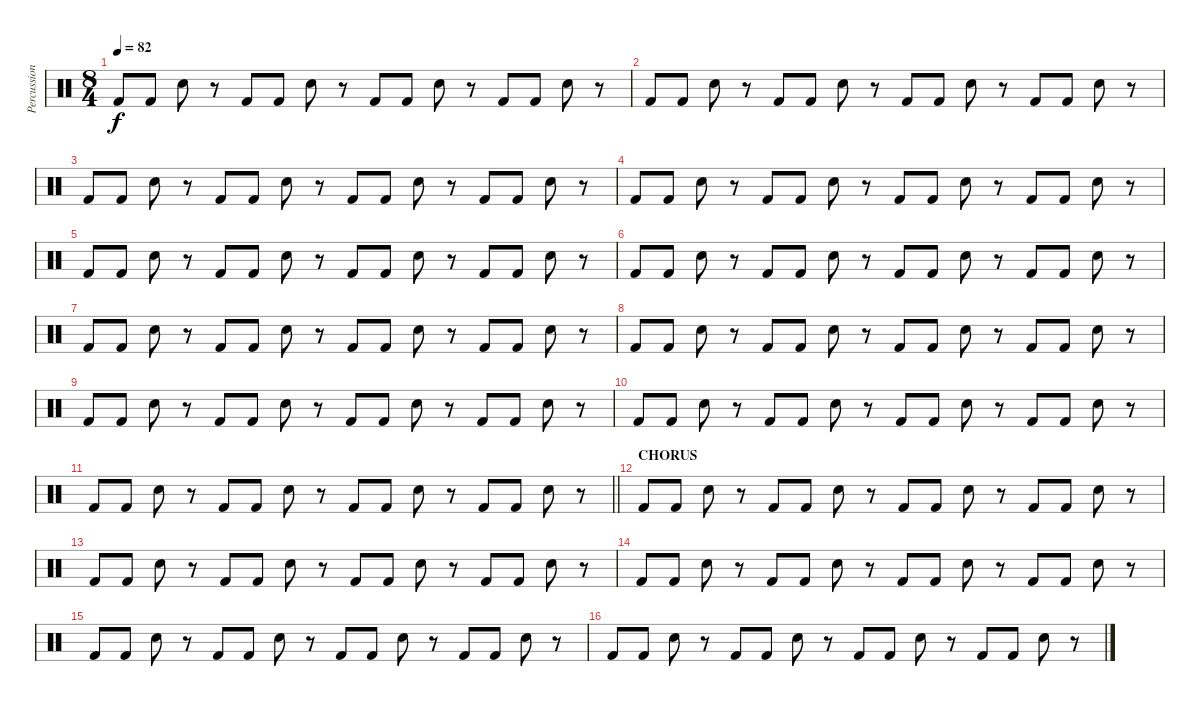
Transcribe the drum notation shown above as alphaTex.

\track ("Percussion" "Percussion") {instrument percussion}
\staff {score}
\articulation defaults
\ts (8 4)
\tempo 82
\clef neutral
\ks c "Kick (hit) 2".8{dy f} "Kick (hit) 2".8 "Electric Snare (hit)".8
r.8 "Kick (hit) 2".8 "Kick (hit) 2".8 "Electric Snare (hit)".8 r.8 "Kick (hit) 2".8 "Kick (hit) 2".8 "Electric Snare (hit)".8 r.8 "Kick (hit) 2".8 "Kick (hit) 2".8 "Electric Snare (hit)".8 r.8 |
"Kick (hit) 2".8 "Kick (hit) 2".8 "Electric Snare (hit)".8 r.8 "Kick (hit) 2".8 "Kick (hit) 2".8 "Electric Snare (hit)".8 r.8 "Kick (hit) 2".8 "Kick (hit) 2".8 "Electric Snare (hit)".8 r.8 "Kick (hit) 2".8 "Kick (hit) 2".8 "Electric Snare (hit)".8 r.8 |
"Kick (hit) 2".8 "Kick (hit) 2".8 "Electric Snare (hit)".8 r.8 "Kick (hit) 2".8 "Kick (hit) 2".8 "Electric Snare (hit)".8 r.8 "Kick (hit) 2".8 "Kick (hit) 2".8 "Electric Snare (hit)".8 r.8 "Kick (hit) 2".8 "Kick (hit) 2".8 "Electric Snare (hit)".8 r.8 |
"Kick (hit) 2".8 "Kick (hit) 2".8 "Electric Snare (hit)".8 r.8 "Kick (hit) 2".8 "Kick (hit) 2".8 "Electric Snare (hit)".8 r.8 "Kick (hit) 2".8 "Kick (hit) 2".8 "Electric Snare (hit)".8 r.8 "Kick (hit) 2".8 "Kick (hit) 2".8 "Electric Snare (hit)".8 r.8 |
"Kick (hit) 2".8 "Kick (hit) 2".8 "Electric Snare (hit)".8 r.8 "Kick (hit) 2".8 "Kick (hit) 2".8 "Electric Snare (hit)".8 r.8 "Kick (hit) 2".8 "Kick (hit) 2".8 "Electric Snare (hit)".8 r.8 "Kick (hit) 2".8 "Kick (hit) 2".8 "Electric Snare (hit)".8 r.8 |
"Kick (hit) 2".8 "Kick (hit) 2".8 "Electric Snare (hit)".8 r.8 "Kick (hit) 2".8 "Kick (hit) 2".8 "Electric Snare (hit)".8 r.8 "Kick (hit) 2".8 "Kick (hit) 2".8 "Electric Snare (hit)".8 r.8 "Kick (hit) 2".8 "Kick (hit) 2".8 "Electric Snare (hit)".8 r.8 |
"Kick (hit) 2".8 "Kick (hit) 2".8 "Electric Snare (hit)".8 r.8 "Kick (hit) 2".8 "Kick (hit) 2".8 "Electric Snare (hit)".8 r.8 "Kick (hit) 2".8 "Kick (hit) 2".8 "Electric Snare (hit)".8 r.8 "Kick (hit) 2".8 "Kick (hit) 2".8 "Electric Snare (hit)".8 r.8 |
"Kick (hit) 2".8 "Kick (hit) 2".8 "Electric Snare (hit)".8 r.8 "Kick (hit) 2".8 "Kick (hit) 2".8 "Electric Snare (hit)".8 r.8 "Kick (hit) 2".8 "Kick (hit) 2".8 "Electric Snare (hit)".8 r.8 "Kick (hit) 2".8 "Kick (hit) 2".8 "Electric Snare (hit)".8 r.8 |
"Kick (hit) 2".8 "Kick (hit) 2".8 "Electric Snare (hit)".8 r.8 "Kick (hit) 2".8 "Kick (hit) 2".8 "Electric Snare (hit)".8 r.8 "Kick (hit) 2".8 "Kick (hit) 2".8 "Electric Snare (hit)".8 r.8 "Kick (hit) 2".8 "Kick (hit) 2".8 "Electric Snare (hit)".8 r.8 |
"Kick (hit) 2".8 "Kick (hit) 2".8 "Electric Snare (hit)".8 r.8 "Kick (hit) 2".8 "Kick (hit) 2".8 "Electric Snare (hit)".8 r.8 "Kick (hit) 2".8 "Kick (hit) 2".8 "Electric Snare (hit)".8 r.8 "Kick (hit) 2".8 "Kick (hit) 2".8 "Electric Snare (hit)".8 r.8 |
\barLineRight lightlight "Kick (hit) 2".8 "Kick (hit) 2".8 "Electric Snare (hit)".8
r.8 "Kick (hit) 2".8 "Kick (hit) 2".8 "Electric Snare (hit)".8 r.8 "Kick (hit) 2".8 "Kick (hit) 2".8 "Electric Snare (hit)".8 r.8 "Kick (hit) 2".8 "Kick (hit) 2".8 "Electric Snare (hit)".8 r.8 |
\section ("" "CHORUS")
"Kick (hit) 2".8 "Kick (hit) 2".8 "Electric Snare (hit)".8 r.8 "Kick (hit) 2".8 "Kick (hit) 2".8 "Electric Snare (hit)".8 r.8 "Kick (hit) 2".8 "Kick (hit) 2".8 "Electric Snare (hit)".8 r.8 "Kick (hit) 2".8 "Kick (hit) 2".8 "Electric Snare (hit)".8 r.8 |
"Kick (hit) 2".8 "Kick (hit) 2".8 "Electric Snare (hit)".8 r.8 "Kick (hit) 2".8 "Kick (hit) 2".8 "Electric Snare (hit)".8 r.8 "Kick (hit) 2".8 "Kick (hit) 2".8 "Electric Snare (hit)".8 r.8 "Kick (hit) 2".8 "Kick (hit) 2".8 "Electric Snare (hit)".8 r.8 |
"Kick (hit) 2".8 "Kick (hit) 2".8 "Electric Snare (hit)".8 r.8 "Kick (hit) 2".8 "Kick (hit) 2".8 "Electric Snare (hit)".8 r.8 "Kick (hit) 2".8 "Kick (hit) 2".8 "Electric Snare (hit)".8 r.8 "Kick (hit) 2".8 "Kick (hit) 2".8 "Electric Snare (hit)".8 r.8 |
"Kick (hit) 2".8 "Kick (hit) 2".8 "Electric Snare (hit)".8 r.8 "Kick (hit) 2".8 "Kick (hit) 2".8 "Electric Snare (hit)".8 r.8 "Kick (hit) 2".8 "Kick (hit) 2".8 "Electric Snare (hit)".8 r.8 "Kick (hit) 2".8 "Kick (hit) 2".8 "Electric Snare (hit)".8 r.8 |
"Kick (hit) 2".8 "Kick (hit) 2".8 "Electric Snare (hit)".8 r.8 "Kick (hit) 2".8 "Kick (hit) 2".8 "Electric Snare (hit)".8 r.8 "Kick (hit) 2".8 "Kick (hit) 2".8 "Electric Snare (hit)".8 r.8 "Kick (hit) 2".8 "Kick (hit) 2".8 "Electric Snare (hit)".8 r.8
